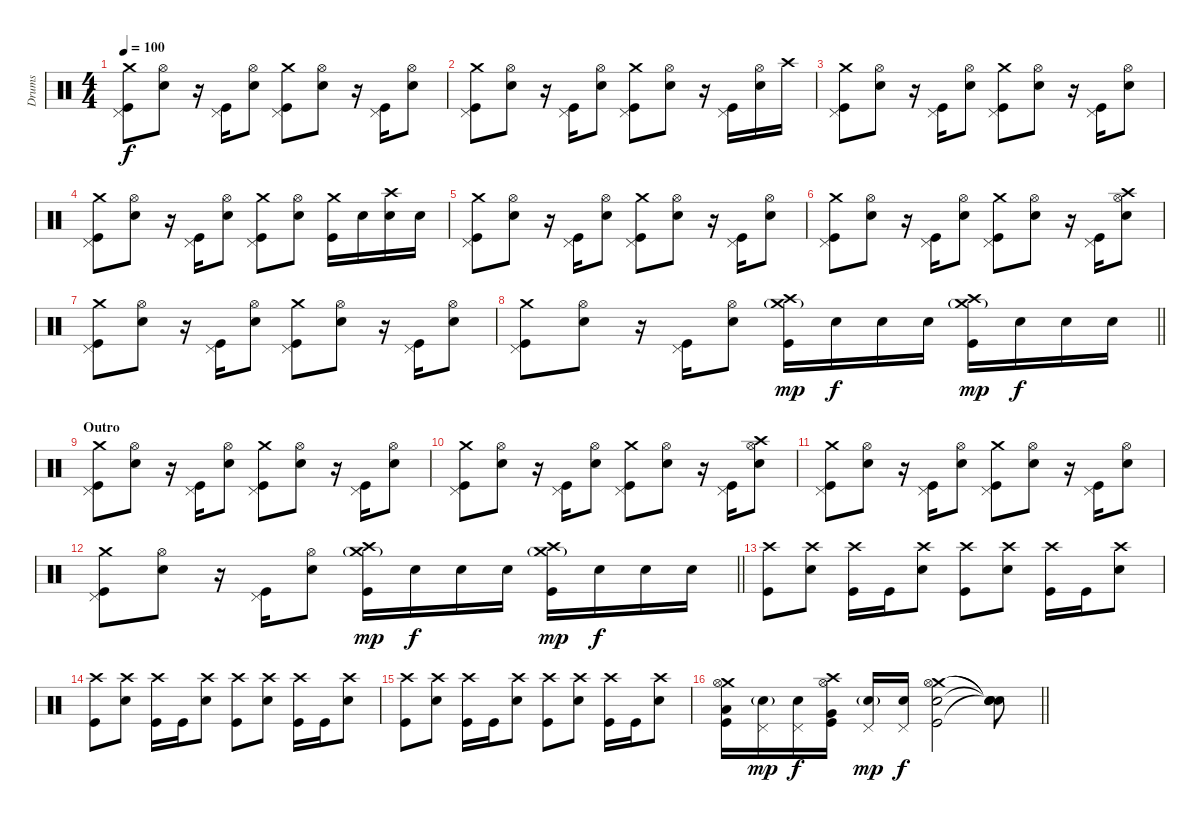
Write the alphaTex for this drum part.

\track ("Drums" "Drums") {instrument percussion}
\staff {score}
\articulation defaults
\ts (4 4)
\tempo 100
\clef neutral
\ks c
("Crash medium (hit)" "Pedal Hi-Hat (hit)" "Kick (hit)").8{dy f} ("Hi-Hat (open)" "Electric Snare (hit)").8 r.16 ("Pedal Hi-Hat (hit)" "Kick (hit)").16 ("Hi-Hat (open)" "Electric Snare (hit)").8 ("Crash medium (hit)" "Pedal Hi-Hat (hit)" "Kick (hit)").8 ("Hi-Hat (open)" "Electric Snare (hit)").8 r.16 ("Pedal Hi-Hat (hit)" "Kick (hit)").16 ("Hi-Hat (open)" "Electric Snare (hit)").8 |
("Crash medium (hit)" "Pedal Hi-Hat (hit)" "Kick (hit)").8 ("Hi-Hat (open)" "Electric Snare (hit)").8 r.16 ("Pedal Hi-Hat (hit)" "Kick (hit)").16 ("Hi-Hat (open)" "Electric Snare (hit)").8 ("Crash medium (hit)" "Pedal Hi-Hat (hit)" "Kick (hit)").8 ("Hi-Hat (open)" "Electric Snare (hit)").8 r.16 ("Pedal Hi-Hat (hit)" "Kick (hit)").16 ("Hi-Hat (open)" "Electric Snare (hit)").16 "Crash high (hit)".16 |
("Crash medium (hit)" "Pedal Hi-Hat (hit)" "Kick (hit)").8 ("Hi-Hat (open)" "Electric Snare (hit)").8 r.16 ("Pedal Hi-Hat (hit)" "Kick (hit)").16 ("Hi-Hat (open)" "Electric Snare (hit)").8 ("Crash medium (hit)" "Pedal Hi-Hat (hit)" "Kick (hit)").8 ("Hi-Hat (open)" "Electric Snare (hit)").8 r.16 ("Pedal Hi-Hat (hit)" "Kick (hit)").16 ("Hi-Hat (open)" "Electric Snare (hit)").8 |
("Crash medium (hit)" "Pedal Hi-Hat (hit)" "Kick (hit)").8 ("Hi-Hat (open)" "Electric Snare (hit)").8 r.16 ("Pedal Hi-Hat (hit)" "Kick (hit)").16 ("Hi-Hat (open)" "Electric Snare (hit)").8 ("Crash medium (hit)" "Pedal Hi-Hat (hit)" "Kick (hit)").8 ("Hi-Hat (open)" "Electric Snare (hit)").8 ("Crash medium (hit)" "Kick (hit)").16 "Electric Snare (hit)".16 ("Crash high (hit)" "Electric Snare (hit)").16 "Electric Snare (hit)".16 |
("Crash medium (hit)" "Pedal Hi-Hat (hit)" "Kick (hit)").8 ("Hi-Hat (open)" "Electric Snare (hit)").8 r.16 ("Pedal Hi-Hat (hit)" "Kick (hit)").16 ("Hi-Hat (open)" "Electric Snare (hit)").8 ("Crash medium (hit)" "Pedal Hi-Hat (hit)" "Kick (hit)").8 ("Hi-Hat (open)" "Electric Snare (hit)").8 r.16 ("Pedal Hi-Hat (hit)" "Kick (hit)").16 ("Hi-Hat (open)" "Electric Snare (hit)").8 |
("Crash medium (hit)" "Pedal Hi-Hat (hit)" "Kick (hit)").8 ("Hi-Hat (open)" "Electric Snare (hit)").8 r.16 ("Pedal Hi-Hat (hit)" "Kick (hit)").16 ("Hi-Hat (open)" "Electric Snare (hit)").8 ("Crash medium (hit)" "Pedal Hi-Hat (hit)" "Kick (hit)").8 ("Hi-Hat (open)" "Electric Snare (hit)").8 r.16 ("Pedal Hi-Hat (hit)" "Kick (hit)").16 ("Crash high (hit)" "Hi-Hat (open)" "Electric Snare (hit)").8 |
("Crash medium (hit)" "Pedal Hi-Hat (hit)" "Kick (hit)").8 ("Hi-Hat (open)" "Electric Snare (hit)").8 r.16 ("Pedal Hi-Hat (hit)" "Kick (hit)").16 ("Hi-Hat (open)" "Electric Snare (hit)").8 ("Crash medium (hit)" "Pedal Hi-Hat (hit)" "Kick (hit)").8 ("Hi-Hat (open)" "Electric Snare (hit)").8 r.16 ("Pedal Hi-Hat (hit)" "Kick (hit)").16 ("Hi-Hat (open)" "Electric Snare (hit)").8 |
\barLineRight lightlight
("Crash medium (hit)" "Pedal Hi-Hat (hit)" "Kick (hit)").8 ("Hi-Hat (open)" "Electric Snare (hit)").8 r.16 ("Pedal Hi-Hat (hit)" "Kick (hit)").16 ("Hi-Hat (open)" "Electric Snare (hit)").8 ("Crash high (hit)" "Crash medium (hit)"{g} "Kick (hit)").16{dy mp} "Electric Snare (hit)".16{dy f} "Electric Snare (hit)".16 "Electric Snare (hit)".16 ("Crash high (hit)" "Crash medium (hit)"{g} "Kick (hit)").16{dy mp} "Electric Snare (hit)".16{dy f} "Electric Snare (hit)".16 "Electric Snare (hit)".16 |
\section ("" "Outro")
("Crash medium (hit)" "Pedal Hi-Hat (hit)" "Kick (hit)").8 ("Hi-Hat (open)" "Electric Snare (hit)").8 r.16 ("Pedal Hi-Hat (hit)" "Kick (hit)").16 ("Hi-Hat (open)" "Electric Snare (hit)").8 ("Crash medium (hit)" "Pedal Hi-Hat (hit)" "Kick (hit)").8 ("Hi-Hat (open)" "Electric Snare (hit)").8 r.16 ("Pedal Hi-Hat (hit)" "Kick (hit)").16 ("Hi-Hat (open)" "Electric Snare (hit)").8 |
("Crash medium (hit)" "Pedal Hi-Hat (hit)" "Kick (hit)").8 ("Hi-Hat (open)" "Electric Snare (hit)").8 r.16 ("Pedal Hi-Hat (hit)" "Kick (hit)").16 ("Hi-Hat (open)" "Electric Snare (hit)").8 ("Crash medium (hit)" "Pedal Hi-Hat (hit)" "Kick (hit)").8 ("Hi-Hat (open)" "Electric Snare (hit)").8 r.16 ("Pedal Hi-Hat (hit)" "Kick (hit)").16 ("Crash high (hit)" "Hi-Hat (open)" "Electric Snare (hit)").8 |
("Crash medium (hit)" "Pedal Hi-Hat (hit)" "Kick (hit)").8 ("Hi-Hat (open)" "Electric Snare (hit)").8 r.16 ("Pedal Hi-Hat (hit)" "Kick (hit)").16 ("Hi-Hat (open)" "Electric Snare (hit)").8 ("Crash medium (hit)" "Pedal Hi-Hat (hit)" "Kick (hit)").8 ("Hi-Hat (open)" "Electric Snare (hit)").8 r.16 ("Pedal Hi-Hat (hit)" "Kick (hit)").16 ("Hi-Hat (open)" "Electric Snare (hit)").8 |
\barLineRight lightlight
("Crash medium (hit)" "Pedal Hi-Hat (hit)" "Kick (hit)").8 ("Hi-Hat (open)" "Electric Snare (hit)").8 r.16 ("Pedal Hi-Hat (hit)" "Kick (hit)").16 ("Hi-Hat (open)" "Electric Snare (hit)").8 ("Crash high (hit)" "Crash medium (hit)"{g} "Kick (hit)").16{dy mp} "Electric Snare (hit)".16{dy f} "Electric Snare (hit)".16 "Electric Snare (hit)".16 ("Crash high (hit)" "Crash medium (hit)"{g} "Kick (hit)").16{dy mp} "Electric Snare (hit)".16{dy f} "Electric Snare (hit)".16 "Electric Snare (hit)".16 |
("Crash high (hit)" "Kick (hit)").8 ("Crash high (hit)" "Electric Snare (hit)").8 ("Crash high (hit)" "Kick (hit)").16 "Kick (hit)".16 ("Crash high (hit)" "Electric Snare (hit)").8 ("Crash high (hit)" "Kick (hit)").8 ("Crash high (hit)" "Electric Snare (hit)").8 ("Crash high (hit)" "Kick (hit)").16 "Kick (hit)".16 ("Crash high (hit)" "Electric Snare (hit)").8 |
("Crash high (hit)" "Kick (hit)").8 ("Crash high (hit)" "Electric Snare (hit)").8 ("Crash high (hit)" "Kick (hit)").16 "Kick (hit)".16 ("Crash high (hit)" "Electric Snare (hit)").8 ("Crash high (hit)" "Kick (hit)").8 ("Crash high (hit)" "Electric Snare (hit)").8 ("Crash high (hit)" "Kick (hit)").16 "Kick (hit)".16 ("Crash high (hit)" "Electric Snare (hit)").8 |
("Crash high (hit)" "Kick (hit)").8 ("Crash high (hit)" "Electric Snare (hit)").8 ("Crash high (hit)" "Kick (hit)").16 "Kick (hit)".16 ("Crash high (hit)" "Electric Snare (hit)").8 ("Crash high (hit)" "Kick (hit)").8 ("Crash high (hit)" "Electric Snare (hit)").8 ("Crash high (hit)" "Kick (hit)").16 "Kick (hit)".16 ("Crash high (hit)" "Electric Snare (hit)").8 |
\barLineRight lightlight
("Crash medium (hit)" "Low Floor Tom (hit)" "Hi-Hat (open)" "Kick (hit)").16 ("Pedal Hi-Hat (hit)" "Electric Snare (hit)"{g}).16{dy mp} ("Pedal Hi-Hat (hit)" "Electric Snare (hit)").16{dy f} ("Crash high (hit)" "Very Low Tom (hit)" "Hi-Hat (open)" "Kick (hit)").16 ("Pedal Hi-Hat (hit)" "Electric Snare (hit)"{g}).16{dy mp} ("Pedal Hi-Hat (hit)" "Electric Snare (hit)").16{dy f} ("Crash medium (hit)" "Hi-Hat (open)" "Electric Snare (hit)" "Kick (hit)").2 ("Snare (hit)"{t} "Snare (hit)"{t} "Snare (hit)"{t} "Snare (hit)"{t}).8
